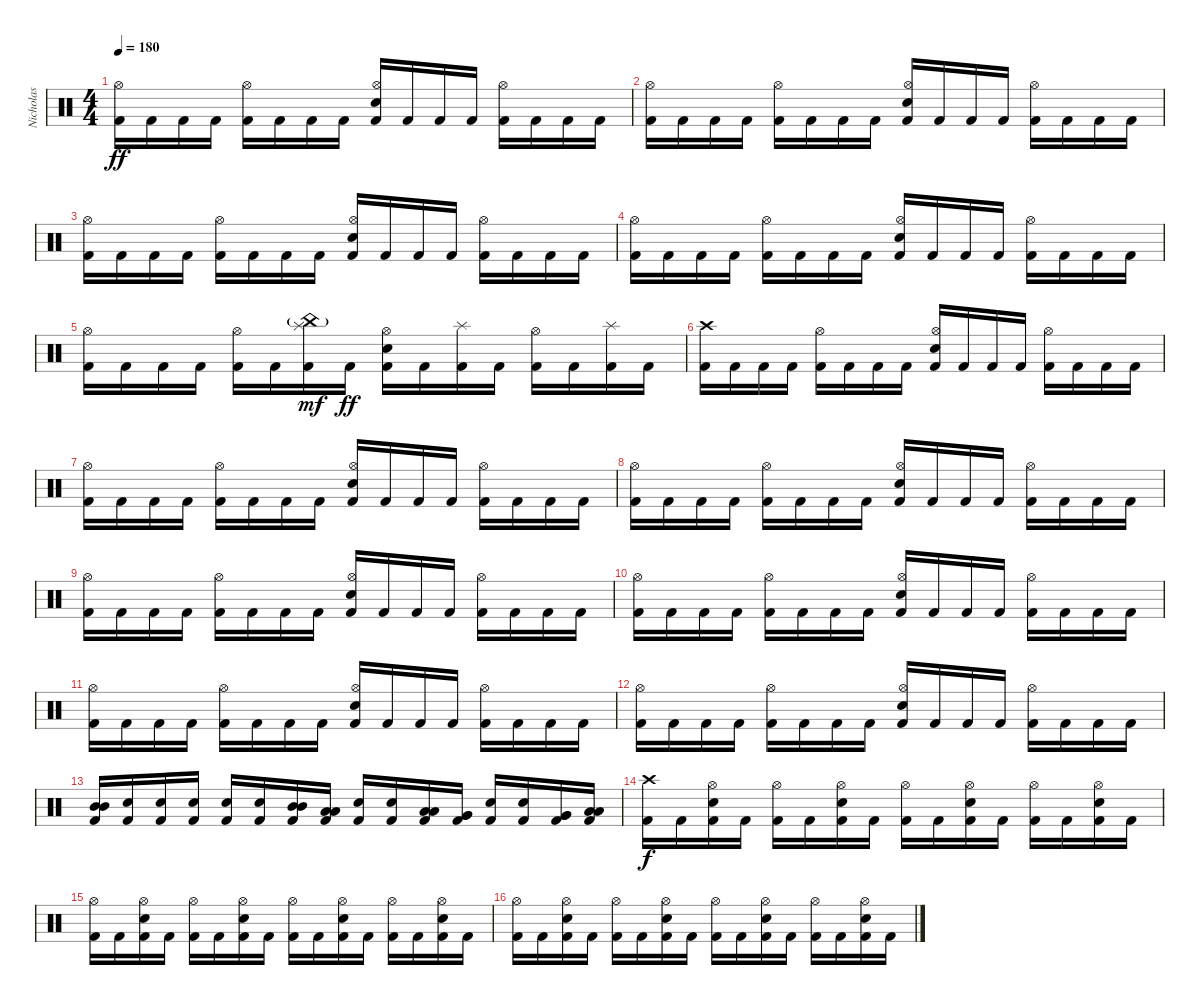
\track ("Nicholas" "Nicholas") {instrument percussion}
\staff {score}
\articulation defaults
\ts (4 4)
\tempo 180
\clef neutral
\ks c
("Kick (hit) 2" "Hi-Hat (open)").16{dy ff} "Kick (hit) 2".16 "Kick (hit) 2".16 "Kick (hit) 2".16 ("Kick (hit) 2" "Hi-Hat (open)").16 "Kick (hit) 2".16 "Kick (hit) 2".16 "Kick (hit) 2".16 ("Kick (hit) 2" "Electric Snare (hit)" "Hi-Hat (open)").16 "Kick (hit) 2".16 "Kick (hit) 2".16 "Kick (hit) 2".16 ("Kick (hit) 2" "Hi-Hat (open)").16 "Kick (hit) 2".16 "Kick (hit) 2".16 "Kick (hit) 2".16 |
("Kick (hit) 2" "Hi-Hat (open)").16 "Kick (hit) 2".16 "Kick (hit) 2".16 "Kick (hit) 2".16 ("Kick (hit) 2" "Hi-Hat (open)").16 "Kick (hit) 2".16 "Kick (hit) 2".16 "Kick (hit) 2".16 ("Kick (hit) 2" "Electric Snare (hit)" "Hi-Hat (open)").16 "Kick (hit) 2".16 "Kick (hit) 2".16 "Kick (hit) 2".16 ("Kick (hit) 2" "Hi-Hat (open)").16 "Kick (hit) 2".16 "Kick (hit) 2".16 "Kick (hit) 2".16 |
("Kick (hit) 2" "Hi-Hat (open)").16 "Kick (hit) 2".16 "Kick (hit) 2".16 "Kick (hit) 2".16 ("Kick (hit) 2" "Hi-Hat (open)").16 "Kick (hit) 2".16 "Kick (hit) 2".16 "Kick (hit) 2".16 ("Kick (hit) 2" "Electric Snare (hit)" "Hi-Hat (open)").16 "Kick (hit) 2".16 "Kick (hit) 2".16 "Kick (hit) 2".16 ("Kick (hit) 2" "Hi-Hat (open)").16 "Kick (hit) 2".16 "Kick (hit) 2".16 "Kick (hit) 2".16 |
("Kick (hit) 2" "Hi-Hat (open)").16 "Kick (hit) 2".16 "Kick (hit) 2".16 "Kick (hit) 2".16 ("Kick (hit) 2" "Hi-Hat (open)").16 "Kick (hit) 2".16 "Kick (hit) 2".16 "Kick (hit) 2".16 ("Kick (hit) 2" "Electric Snare (hit)" "Hi-Hat (open)").16 "Kick (hit) 2".16 "Kick (hit) 2".16 "Kick (hit) 2".16 ("Kick (hit) 2" "Hi-Hat (open)").16 "Kick (hit) 2".16 "Kick (hit) 2".16 "Kick (hit) 2".16 |
("Kick (hit) 2" "Hi-Hat (open)").16 "Kick (hit) 2".16 "Kick (hit) 2".16 "Kick (hit) 2".16 ("Kick (hit) 2" "Hi-Hat (open)").16 "Kick (hit) 2".16 ("Kick (hit) 2" "Splash (hit)" "China (hit)"{g}).16{dy mf} "Kick (hit) 2".16{dy ff} ("Kick (hit) 2" "Electric Snare (hit)" "Hi-Hat (open)").16 "Kick (hit) 2".16 ("Kick (hit) 2" "Splash (hit)").16 "Kick (hit) 2".16 ("Kick (hit) 2" "Hi-Hat (open)").16 "Kick (hit) 2".16 ("Kick (hit) 2" "Splash (hit)").16 "Kick (hit) 2".16 |
("Kick (hit) 2" "Crash high (hit)").16 "Kick (hit) 2".16 "Kick (hit) 2".16 "Kick (hit) 2".16 ("Kick (hit) 2" "Hi-Hat (open)").16 "Kick (hit) 2".16 "Kick (hit) 2".16 "Kick (hit) 2".16 ("Kick (hit) 2" "Electric Snare (hit)" "Hi-Hat (open)").16 "Kick (hit) 2".16 "Kick (hit) 2".16 "Kick (hit) 2".16 ("Kick (hit) 2" "Hi-Hat (open)").16 "Kick (hit) 2".16 "Kick (hit) 2".16 "Kick (hit) 2".16 |
("Kick (hit) 2" "Hi-Hat (open)").16 "Kick (hit) 2".16 "Kick (hit) 2".16 "Kick (hit) 2".16 ("Kick (hit) 2" "Hi-Hat (open)").16 "Kick (hit) 2".16 "Kick (hit) 2".16 "Kick (hit) 2".16 ("Kick (hit) 2" "Electric Snare (hit)" "Hi-Hat (open)").16 "Kick (hit) 2".16 "Kick (hit) 2".16 "Kick (hit) 2".16 ("Kick (hit) 2" "Hi-Hat (open)").16 "Kick (hit) 2".16 "Kick (hit) 2".16 "Kick (hit) 2".16 |
("Kick (hit) 2" "Hi-Hat (open)").16 "Kick (hit) 2".16 "Kick (hit) 2".16 "Kick (hit) 2".16 ("Kick (hit) 2" "Hi-Hat (open)").16 "Kick (hit) 2".16 "Kick (hit) 2".16 "Kick (hit) 2".16 ("Kick (hit) 2" "Electric Snare (hit)" "Hi-Hat (open)").16 "Kick (hit) 2".16 "Kick (hit) 2".16 "Kick (hit) 2".16 ("Kick (hit) 2" "Hi-Hat (open)").16 "Kick (hit) 2".16 "Kick (hit) 2".16 "Kick (hit) 2".16 |
("Kick (hit) 2" "Hi-Hat (open)").16 "Kick (hit) 2".16 "Kick (hit) 2".16 "Kick (hit) 2".16 ("Kick (hit) 2" "Hi-Hat (open)").16 "Kick (hit) 2".16 "Kick (hit) 2".16 "Kick (hit) 2".16 ("Kick (hit) 2" "Electric Snare (hit)" "Hi-Hat (open)").16 "Kick (hit) 2".16 "Kick (hit) 2".16 "Kick (hit) 2".16 ("Kick (hit) 2" "Hi-Hat (open)").16 "Kick (hit) 2".16 "Kick (hit) 2".16 "Kick (hit) 2".16 |
("Kick (hit) 2" "Hi-Hat (open)").16 "Kick (hit) 2".16 "Kick (hit) 2".16 "Kick (hit) 2".16 ("Kick (hit) 2" "Hi-Hat (open)").16 "Kick (hit) 2".16 "Kick (hit) 2".16 "Kick (hit) 2".16 ("Kick (hit) 2" "Electric Snare (hit)" "Hi-Hat (open)").16 "Kick (hit) 2".16 "Kick (hit) 2".16 "Kick (hit) 2".16 ("Kick (hit) 2" "Hi-Hat (open)").16 "Kick (hit) 2".16 "Kick (hit) 2".16 "Kick (hit) 2".16 |
("Kick (hit) 2" "Hi-Hat (open)").16 "Kick (hit) 2".16 "Kick (hit) 2".16 "Kick (hit) 2".16 ("Kick (hit) 2" "Hi-Hat (open)").16 "Kick (hit) 2".16 "Kick (hit) 2".16 "Kick (hit) 2".16 ("Kick (hit) 2" "Electric Snare (hit)" "Hi-Hat (open)").16 "Kick (hit) 2".16 "Kick (hit) 2".16 "Kick (hit) 2".16 ("Kick (hit) 2" "Hi-Hat (open)").16 "Kick (hit) 2".16 "Kick (hit) 2".16 "Kick (hit) 2".16 |
("Kick (hit) 2" "Hi-Hat (open)").16 "Kick (hit) 2".16 "Kick (hit) 2".16 "Kick (hit) 2".16 ("Kick (hit) 2" "Hi-Hat (open)").16 "Kick (hit) 2".16 "Kick (hit) 2".16 "Kick (hit) 2".16 ("Kick (hit) 2" "Electric Snare (hit)" "Hi-Hat (open)").16 "Kick (hit) 2".16 "Kick (hit) 2".16 "Kick (hit) 2".16 ("Kick (hit) 2" "Hi-Hat (open)").16 "Kick (hit) 2".16 "Kick (hit) 2".16 "Kick (hit) 2".16 |
("Kick (hit) 2" "Mid Tom (hit)" "Mid Tom (hit)").16 ("Kick (hit) 2" "Electric Snare (hit)").16 ("Kick (hit) 2" "Electric Snare (hit)").16 ("Kick (hit) 2" "Electric Snare (hit)").16 ("Kick (hit) 2" "Electric Snare (hit)").16 ("Kick (hit) 2" "Electric Snare (hit)").16 ("Kick (hit) 2" "Mid Tom (hit)" "Mid Tom (hit)").16 ("Kick (hit) 2" "Low Tom (hit)" "Low Tom (hit)").16 ("Kick (hit) 2" "Electric Snare (hit)").16 ("Kick (hit) 2" "Electric Snare (hit)").16 ("Kick (hit) 2" "Low Tom (hit)" "Low Tom (hit)").16 ("Kick (hit) 2" "Very Low Tom (hit)" "Very Low Tom (hit)").16 ("Kick (hit) 2" "Electric Snare (hit)").16 ("Kick (hit) 2" "Electric Snare (hit)").16 ("Kick (hit) 2" "Very Low Tom (hit)" "Very Low Tom (hit)").16 ("Kick (hit) 2" "Low Floor Tom (hit)" "Low Floor Tom (hit)").16 |
("Kick (hit) 2" "Crash high (hit)").16{dy f} "Kick (hit) 2".16 ("Kick (hit) 2" "Electric Snare (hit)" "Hi-Hat (open)").16 "Kick (hit) 2".16 ("Kick (hit) 2" "Hi-Hat (open)").16 "Kick (hit) 2".16 ("Kick (hit) 2" "Electric Snare (hit)" "Hi-Hat (open)").16 "Kick (hit) 2".16 ("Kick (hit) 2" "Hi-Hat (open)").16 "Kick (hit) 2".16 ("Kick (hit) 2" "Electric Snare (hit)" "Hi-Hat (open)").16 "Kick (hit) 2".16 ("Kick (hit) 2" "Hi-Hat (open)").16 "Kick (hit) 2".16 ("Kick (hit) 2" "Electric Snare (hit)" "Hi-Hat (open)").16 "Kick (hit) 2".16 |
("Kick (hit) 2" "Hi-Hat (open)").16 "Kick (hit) 2".16 ("Kick (hit) 2" "Electric Snare (hit)" "Hi-Hat (open)").16 "Kick (hit) 2".16 ("Kick (hit) 2" "Hi-Hat (open)").16 "Kick (hit) 2".16 ("Kick (hit) 2" "Electric Snare (hit)" "Hi-Hat (open)").16 "Kick (hit) 2".16 ("Kick (hit) 2" "Hi-Hat (open)").16 "Kick (hit) 2".16 ("Kick (hit) 2" "Electric Snare (hit)" "Hi-Hat (open)").16 "Kick (hit) 2".16 ("Kick (hit) 2" "Hi-Hat (open)").16 "Kick (hit) 2".16 ("Kick (hit) 2" "Electric Snare (hit)" "Hi-Hat (open)").16 "Kick (hit) 2".16 |
("Kick (hit) 2" "Hi-Hat (open)").16 "Kick (hit) 2".16 ("Kick (hit) 2" "Electric Snare (hit)" "Hi-Hat (open)").16 "Kick (hit) 2".16 ("Kick (hit) 2" "Hi-Hat (open)").16 "Kick (hit) 2".16 ("Kick (hit) 2" "Electric Snare (hit)" "Hi-Hat (open)").16 "Kick (hit) 2".16 ("Kick (hit) 2" "Hi-Hat (open)").16 "Kick (hit) 2".16 ("Kick (hit) 2" "Electric Snare (hit)" "Hi-Hat (open)").16 "Kick (hit) 2".16 ("Kick (hit) 2" "Hi-Hat (open)").16 "Kick (hit) 2".16 ("Kick (hit) 2" "Electric Snare (hit)" "Hi-Hat (open)").16 "Kick (hit) 2".16
